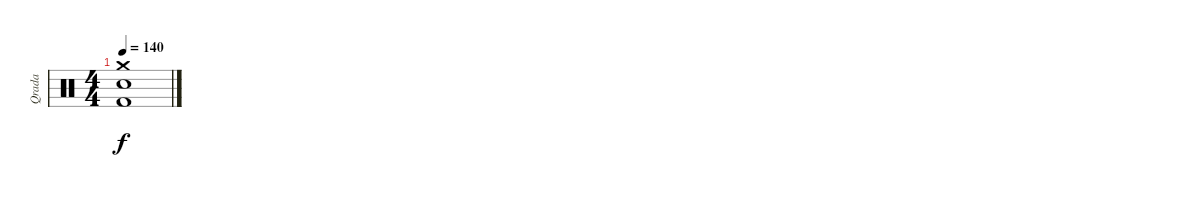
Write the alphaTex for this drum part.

\track ("Qrada" "Qrada") {instrument percussion}
\staff {score}
\articulation defaults
\ts (4 4)
\tempo 140
\clef neutral
\ks c
("Kick (hit) 2" "Snare (hit) 2" "Crash medium (hit)").1{dy f}
